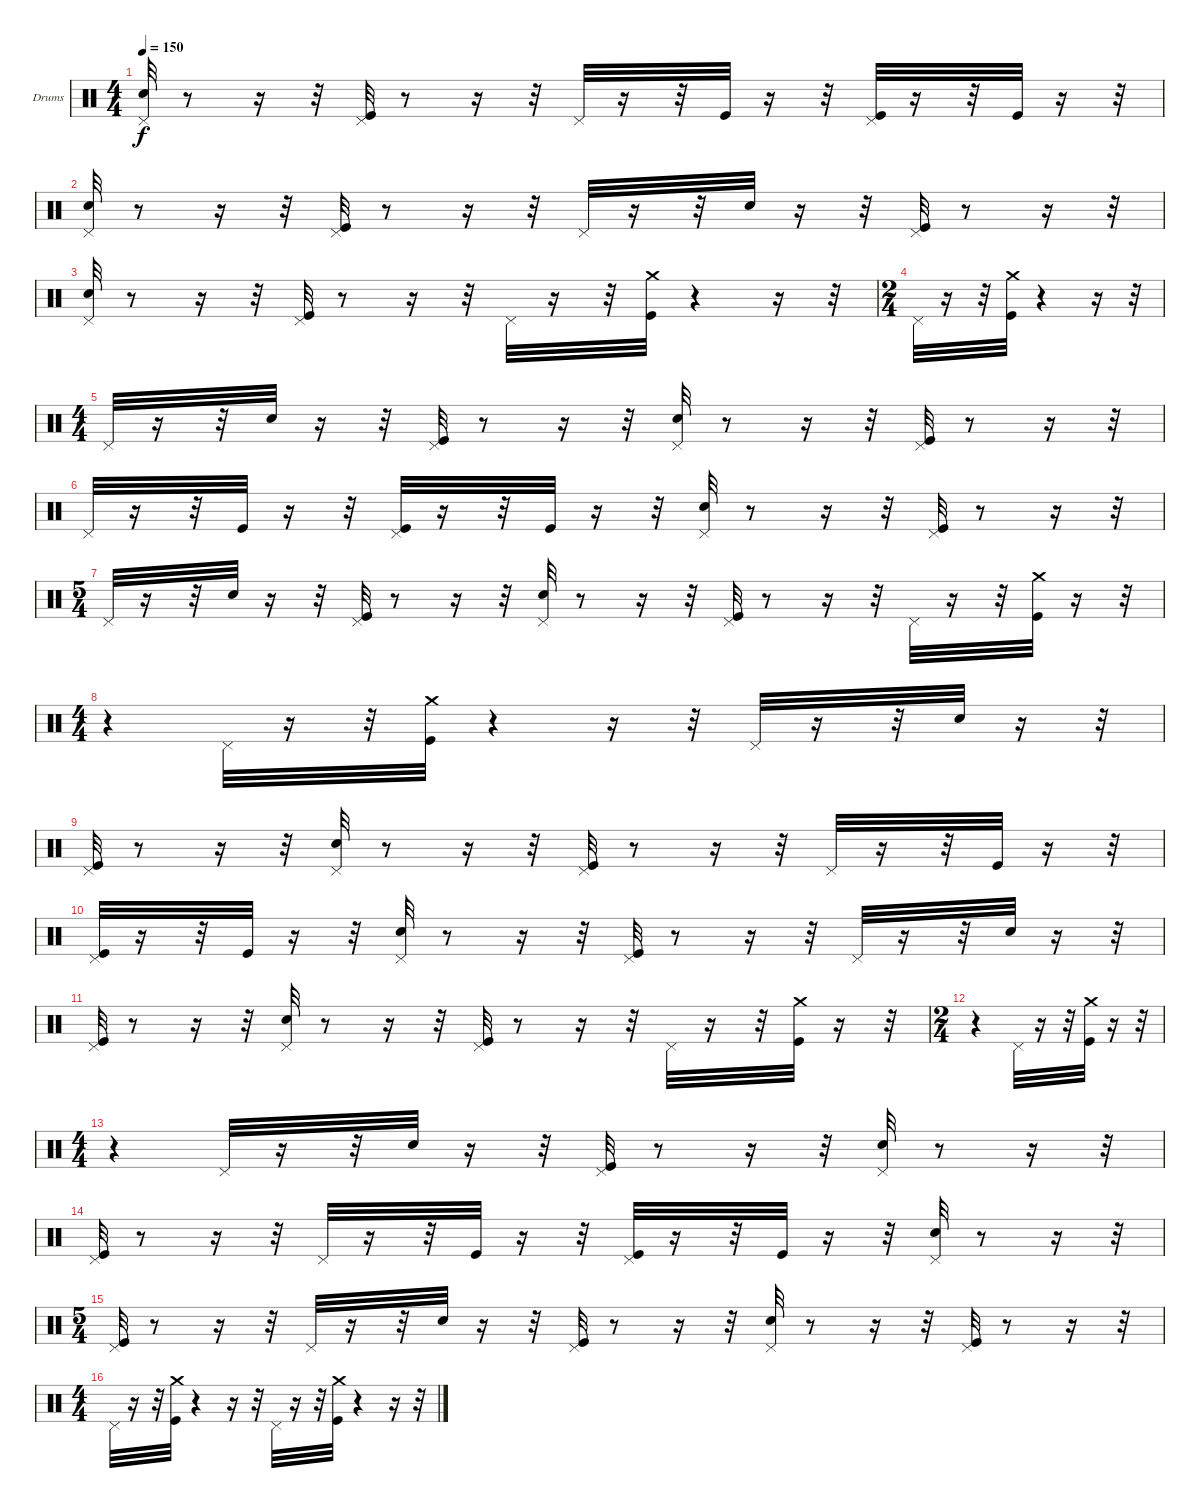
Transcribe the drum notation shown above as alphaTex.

\bracketExtendMode groupsimilarinstruments
\firstSystemTrackNameOrientation horizontal
\otherSystemsTrackNameOrientation horizontal
\track ("Drumkit" "Drums") {instrument percussion}
\staff {score}
\articulation defaults
\ts (4 4)
\tempo 150
\clef neutral
\ks c
("Pedal Hi-Hat (hit)" "Snare (hit) 2").32{dy f} r.8 r.16 r.32 ("Pedal Hi-Hat (hit)" "Kick (hit)").32 r.8 r.16 r.32 "Pedal Hi-Hat (hit)".32 r.16 r.32 "Kick (hit)".32 r.16 r.32 ("Pedal Hi-Hat (hit)" "Kick (hit)").32 r.16 r.32 "Kick (hit)".32 r.16 r.32 |
("Pedal Hi-Hat (hit)" "Snare (hit) 2").32 r.8 r.16 r.32 ("Pedal Hi-Hat (hit)" "Kick (hit)").32 r.8 r.16 r.32 "Pedal Hi-Hat (hit)".32 r.16 r.32 "Snare (hit) 2".32 r.16 r.32 ("Kick (hit)" "Pedal Hi-Hat (hit)").32 r.8 r.16 r.32 |
("Snare (hit) 2" "Pedal Hi-Hat (hit)").32 r.8 r.16 r.32 ("Kick (hit)" "Pedal Hi-Hat (hit)").32 r.8 r.16 r.32 "Pedal Hi-Hat (hit)".32 r.16 r.32 ("Crash medium (hit)" "Kick (hit)").32 r.4 r.16 r.32 |
\ts (2 4)
"Pedal Hi-Hat (hit)".32 r.16 r.32 ("Crash medium (hit)" "Kick (hit)").32 r.4 r.16 r.32 |
\ts (4 4)
"Pedal Hi-Hat (hit)".32 r.16 r.32 "Snare (hit) 2".32 r.16 r.32 ("Pedal Hi-Hat (hit)" "Kick (hit)").32 r.8 r.16 r.32 ("Snare (hit) 2" "Pedal Hi-Hat (hit)").32 r.8 r.16 r.32 ("Pedal Hi-Hat (hit)" "Kick (hit)").32 r.8 r.16 r.32 |
"Pedal Hi-Hat (hit)".32 r.16 r.32 "Kick (hit)".32 r.16 r.32 ("Pedal Hi-Hat (hit)" "Kick (hit)").32 r.16 r.32 "Kick (hit)".32 r.16 r.32 ("Pedal Hi-Hat (hit)" "Snare (hit) 2").32 r.8 r.16 r.32 ("Pedal Hi-Hat (hit)" "Kick (hit)").32 r.8 r.16 r.32 |
\ts (5 4)
"Pedal Hi-Hat (hit)".32 r.16 r.32 "Snare (hit) 2".32 r.16 r.32 ("Pedal Hi-Hat (hit)" "Kick (hit)").32 r.8 r.16 r.32 ("Pedal Hi-Hat (hit)" "Snare (hit) 2").32 r.8 r.16 r.32 ("Pedal Hi-Hat (hit)" "Kick (hit)").32 r.8 r.16 r.32 "Pedal Hi-Hat (hit)".32 r.16 r.32 ("Crash medium (hit)" "Kick (hit)").32 r.16 r.32 |
\ts (4 4)
r.4 "Pedal Hi-Hat (hit)".32 r.16 r.32 ("Crash medium (hit)" "Kick (hit)").32 r.4 r.16 r.32 "Pedal Hi-Hat (hit)".32 r.16 r.32 "Snare (hit) 2".32 r.16 r.32 |
("Pedal Hi-Hat (hit)" "Kick (hit)").32 r.8 r.16 r.32 ("Snare (hit) 2" "Pedal Hi-Hat (hit)").32 r.8 r.16 r.32 ("Pedal Hi-Hat (hit)" "Kick (hit)").32 r.8 r.16 r.32 "Pedal Hi-Hat (hit)".32 r.16 r.32 "Kick (hit)".32 r.16 r.32 |
("Pedal Hi-Hat (hit)" "Kick (hit)").32 r.16 r.32 "Kick (hit)".32 r.16 r.32 ("Pedal Hi-Hat (hit)" "Snare (hit) 2").32 r.8 r.16 r.32 ("Pedal Hi-Hat (hit)" "Kick (hit)").32 r.8 r.16 r.32 "Pedal Hi-Hat (hit)".32 r.16 r.32 "Snare (hit) 2".32 r.16 r.32 |
("Pedal Hi-Hat (hit)" "Kick (hit)").32 r.8 r.16 r.32 ("Pedal Hi-Hat (hit)" "Snare (hit) 2").32 r.8 r.16 r.32 ("Pedal Hi-Hat (hit)" "Kick (hit)").32 r.8 r.16 r.32 "Pedal Hi-Hat (hit)".32 r.16 r.32 ("Crash medium (hit)" "Kick (hit)").32 r.16 r.32 |
\ts (2 4)
r.4 "Pedal Hi-Hat (hit)".32 r.16 r.32 ("Crash medium (hit)" "Kick (hit)").32 r.16 r.32 |
\ts (4 4)
r.4 "Pedal Hi-Hat (hit)".32 r.16 r.32 "Snare (hit) 2".32 r.16 r.32 ("Pedal Hi-Hat (hit)" "Kick (hit)").32 r.8 r.16 r.32 ("Snare (hit) 2" "Pedal Hi-Hat (hit)").32 r.8 r.16 r.32 |
("Pedal Hi-Hat (hit)" "Kick (hit)").32 r.8 r.16 r.32 "Pedal Hi-Hat (hit)".32 r.16 r.32 "Kick (hit)".32 r.16 r.32 ("Pedal Hi-Hat (hit)" "Kick (hit)").32 r.16 r.32 "Kick (hit)".32 r.16 r.32 ("Pedal Hi-Hat (hit)" "Snare (hit) 2").32 r.8 r.16 r.32 |
\ts (5 4)
("Pedal Hi-Hat (hit)" "Kick (hit)").32 r.8 r.16 r.32 "Pedal Hi-Hat (hit)".32 r.16 r.32 "Snare (hit) 2".32 r.16 r.32 ("Pedal Hi-Hat (hit)" "Kick (hit)").32 r.8 r.16 r.32 ("Pedal Hi-Hat (hit)" "Snare (hit) 2").32 r.8 r.16 r.32 ("Pedal Hi-Hat (hit)" "Kick (hit)").32 r.8 r.16 r.32 |
\ts (4 4)
"Pedal Hi-Hat (hit)".32 r.16 r.32 ("Crash medium (hit)" "Kick (hit)").32 r.4 r.16 r.32 "Pedal Hi-Hat (hit)".32 r.16 r.32 ("Crash medium (hit)" "Kick (hit)").32 r.4 r.16 r.32
